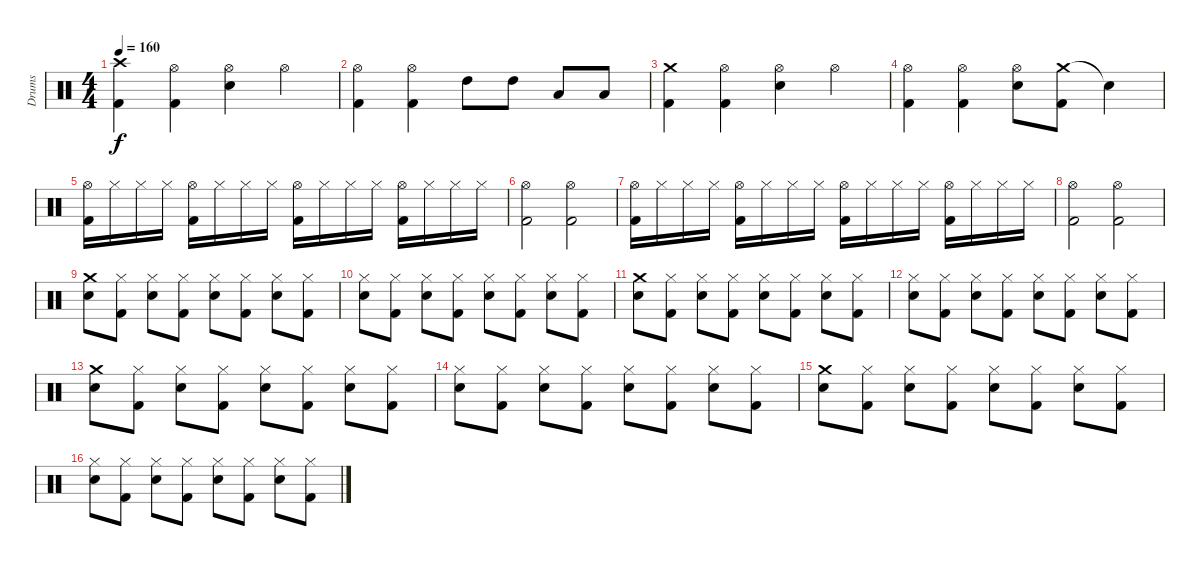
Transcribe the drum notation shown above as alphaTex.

\track ("Drums" "Drums") {instrument percussion}
\staff {score}
\articulation defaults
\ts (4 4)
\tempo 160
\clef neutral
\ks c
("Crash high (hit)" "Kick (hit) 2").4{dy f} ("Hi-Hat (open)" "Kick (hit) 2").4 ("Hi-Hat (open)" "Electric Snare (hit)").4 "Hi-Hat (open)".4 |
("Hi-Hat (open)" "Kick (hit) 2").4 ("Hi-Hat (open)" "Kick (hit) 2").4 "High Tom (hit)".8 "High Tom (hit)".8 "Low Tom (hit)".8 "Low Tom (hit)".8 |
("Crash medium (hit)" "Kick (hit) 2").4 ("Hi-Hat (open)" "Kick (hit) 2").4 ("Hi-Hat (open)" "Electric Snare (hit)").4 "Hi-Hat (open)".4 |
("Hi-Hat (open)" "Kick (hit) 2").4 ("Hi-Hat (open)" "Kick (hit) 2").4 ("Hi-Hat (open)" "Electric Snare (hit)").8 ("Crash medium (hit)" "Kick (hit) 2").8 "Snare (hit)"{t}.4 |
("Hi-Hat (open)" "Kick (hit) 2").16 "Hi-Hat (closed)".16 "Hi-Hat (closed)".16 "Hi-Hat (closed)".16 ("Hi-Hat (open)" "Kick (hit) 2").16 "Hi-Hat (closed)".16 "Hi-Hat (closed)".16 "Hi-Hat (closed)".16 ("Hi-Hat (open)" "Kick (hit) 2").16 "Hi-Hat (closed)".16 "Hi-Hat (closed)".16 "Hi-Hat (closed)".16 ("Hi-Hat (open)" "Kick (hit) 2").16 "Hi-Hat (closed)".16 "Hi-Hat (closed)".16 "Hi-Hat (closed)".16 |
("Hi-Hat (open)" "Kick (hit) 2").2 ("Hi-Hat (open)" "Kick (hit) 2").2 |
("Hi-Hat (open)" "Kick (hit) 2").16 "Hi-Hat (closed)".16 "Hi-Hat (closed)".16 "Hi-Hat (closed)".16 ("Hi-Hat (open)" "Kick (hit) 2").16 "Hi-Hat (closed)".16 "Hi-Hat (closed)".16 "Hi-Hat (closed)".16 ("Hi-Hat (open)" "Kick (hit) 2").16 "Hi-Hat (closed)".16 "Hi-Hat (closed)".16 "Hi-Hat (closed)".16 ("Hi-Hat (open)" "Kick (hit) 2").16 "Hi-Hat (closed)".16 "Hi-Hat (closed)".16 "Hi-Hat (closed)".16 |
("Hi-Hat (open)" "Kick (hit) 2").2 ("Hi-Hat (open)" "Kick (hit) 2").2 |
("Crash medium (hit)" "Electric Snare (hit)").8 ("Hi-Hat (closed)" "Kick (hit) 2").8 ("Hi-Hat (closed)" "Electric Snare (hit)").8 ("Hi-Hat (closed)" "Kick (hit) 2").8 ("Hi-Hat (closed)" "Electric Snare (hit)").8 ("Hi-Hat (closed)" "Kick (hit) 2").8 ("Hi-Hat (closed)" "Electric Snare (hit)").8 ("Hi-Hat (closed)" "Kick (hit) 2").8 |
("Hi-Hat (closed)" "Electric Snare (hit)").8 ("Hi-Hat (closed)" "Kick (hit) 2").8 ("Hi-Hat (closed)" "Electric Snare (hit)").8 ("Hi-Hat (closed)" "Kick (hit) 2").8 ("Hi-Hat (closed)" "Electric Snare (hit)").8 ("Hi-Hat (closed)" "Kick (hit) 2").8 ("Hi-Hat (closed)" "Electric Snare (hit)").8 ("Hi-Hat (closed)" "Kick (hit) 2").8 |
("Crash medium (hit)" "Electric Snare (hit)").8 ("Hi-Hat (closed)" "Kick (hit) 2").8 ("Hi-Hat (closed)" "Electric Snare (hit)").8 ("Hi-Hat (closed)" "Kick (hit) 2").8 ("Hi-Hat (closed)" "Electric Snare (hit)").8 ("Hi-Hat (closed)" "Kick (hit) 2").8 ("Hi-Hat (closed)" "Electric Snare (hit)").8 ("Hi-Hat (closed)" "Kick (hit) 2").8 |
("Hi-Hat (closed)" "Electric Snare (hit)").8 ("Hi-Hat (closed)" "Kick (hit) 2").8 ("Hi-Hat (closed)" "Electric Snare (hit)").8 ("Hi-Hat (closed)" "Kick (hit) 2").8 ("Hi-Hat (closed)" "Electric Snare (hit)").8 ("Hi-Hat (closed)" "Kick (hit) 2").8 ("Hi-Hat (closed)" "Electric Snare (hit)").8 ("Hi-Hat (closed)" "Kick (hit) 2").8 |
("Crash medium (hit)" "Electric Snare (hit)").8 ("Hi-Hat (closed)" "Kick (hit) 2").8 ("Hi-Hat (closed)" "Electric Snare (hit)").8 ("Hi-Hat (closed)" "Kick (hit) 2").8 ("Hi-Hat (closed)" "Electric Snare (hit)").8 ("Hi-Hat (closed)" "Kick (hit) 2").8 ("Hi-Hat (closed)" "Electric Snare (hit)").8 ("Hi-Hat (closed)" "Kick (hit) 2").8 |
("Hi-Hat (closed)" "Electric Snare (hit)").8 ("Hi-Hat (closed)" "Kick (hit) 2").8 ("Hi-Hat (closed)" "Electric Snare (hit)").8 ("Hi-Hat (closed)" "Kick (hit) 2").8 ("Hi-Hat (closed)" "Electric Snare (hit)").8 ("Hi-Hat (closed)" "Kick (hit) 2").8 ("Hi-Hat (closed)" "Electric Snare (hit)").8 ("Hi-Hat (closed)" "Kick (hit) 2").8 |
("Crash medium (hit)" "Electric Snare (hit)").8 ("Hi-Hat (closed)" "Kick (hit) 2").8 ("Hi-Hat (closed)" "Electric Snare (hit)").8 ("Hi-Hat (closed)" "Kick (hit) 2").8 ("Hi-Hat (closed)" "Electric Snare (hit)").8 ("Hi-Hat (closed)" "Kick (hit) 2").8 ("Hi-Hat (closed)" "Electric Snare (hit)").8 ("Hi-Hat (closed)" "Kick (hit) 2").8 |
("Hi-Hat (closed)" "Electric Snare (hit)").8 ("Hi-Hat (closed)" "Kick (hit) 2").8 ("Hi-Hat (closed)" "Electric Snare (hit)").8 ("Hi-Hat (closed)" "Kick (hit) 2").8 ("Hi-Hat (closed)" "Electric Snare (hit)").8 ("Hi-Hat (closed)" "Kick (hit) 2").8 ("Hi-Hat (closed)" "Electric Snare (hit)").8 ("Hi-Hat (closed)" "Kick (hit) 2").8
